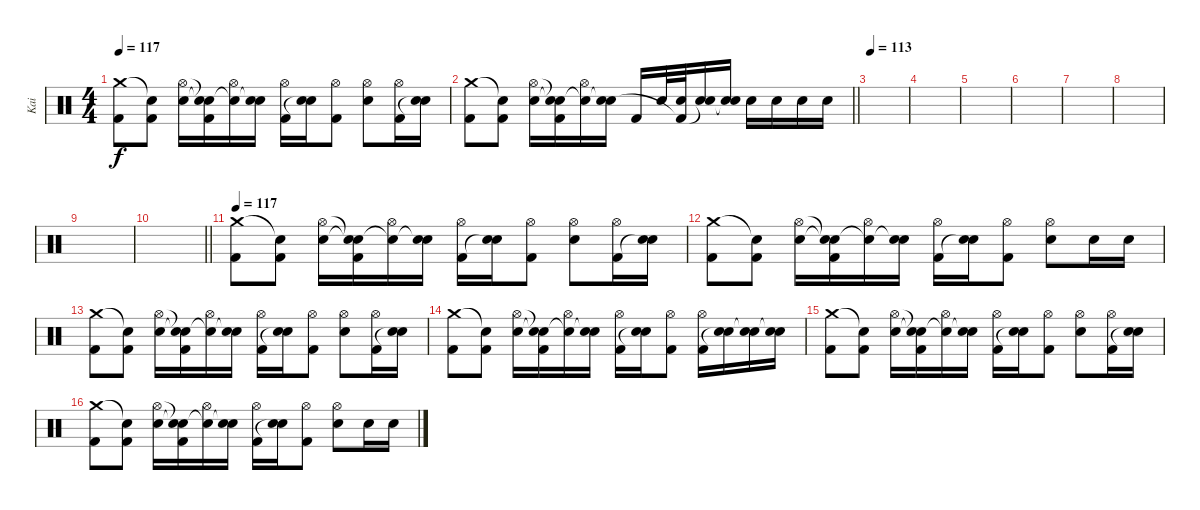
\track ("Kai" "Kai") {instrument percussion}
\staff {score}
\articulation defaults
\ts (4 4)
\tempo 117
\clef neutral
\ks c
("Crash medium (hit)" "Kick (hit) 2").8{dy f} ("Snare (hit)"{t} "Kick (hit) 2").8 ("Hi-Hat (open)" "Snare (hit) 2").16 ("Snare (hit)"{t} "Snare (hit)"{t} "Kick (hit) 2").16 ("Hi-Hat (open)" "Snare (hit)"{t}).16 ("Snare (hit) 2" "Snare (hit)"{t}).16 ("Hi-Hat (open)" "Kick (hit) 2").16 ("Snare (hit) 2" "Snare (hit)"{t}).16 ("Hi-Hat (open)" "Kick (hit) 2").8 ("Hi-Hat (open)" "Snare (hit) 2").8 ("Hi-Hat (open)" "Kick (hit) 2").16 ("Snare (hit) 2" "Snare (hit)"{t}).16 |
\barLineRight lightlight
("Crash medium (hit)" "Kick (hit) 2").8 ("Snare (hit)"{t} "Kick (hit) 2").8 ("Hi-Hat (open)" "Snare (hit) 2").16 ("Snare (hit)"{t} "Snare (hit)"{t} "Kick (hit) 2").16 ("Hi-Hat (open)" "Snare (hit)"{t}).16 ("Snare (hit) 2" "Snare (hit)"{t}).16 "Kick (hit) 2".16 "Snare (hit) 2".32 ("Snare (hit) 2" "Kick (hit) 2"{t}).32 ("Snare (hit) 2" "Snare (hit)"{t}).16 ("Snare (hit) 2" "Snare (hit)"{t}).16 "Snare (hit) 2".16 "Snare (hit) 2".16 "Snare (hit) 2".16 "Snare (hit) 2".16 |
\tempo 113
|
|
|
|
|
|
|
\barLineRight lightlight
|
\tempo 117
("Crash medium (hit)" "Kick (hit) 2").8 ("Snare (hit)"{t} "Kick (hit) 2").8 ("Hi-Hat (open)" "Snare (hit) 2").16 ("Snare (hit)"{t} "Snare (hit)"{t} "Kick (hit) 2").16 ("Hi-Hat (open)" "Snare (hit)"{t}).16 ("Snare (hit) 2" "Snare (hit)"{t}).16 ("Hi-Hat (open)" "Kick (hit) 2").16 ("Snare (hit) 2" "Snare (hit)"{t}).16 ("Hi-Hat (open)" "Kick (hit) 2").8 ("Hi-Hat (open)" "Snare (hit) 2").8 ("Hi-Hat (open)" "Kick (hit) 2").16 ("Snare (hit) 2" "Snare (hit)"{t}).16 |
("Crash medium (hit)" "Kick (hit) 2").8 ("Snare (hit)"{t} "Kick (hit) 2").8 ("Hi-Hat (open)" "Snare (hit) 2").16 ("Snare (hit)"{t} "Snare (hit)"{t} "Kick (hit) 2").16 ("Hi-Hat (open)" "Snare (hit)"{t}).16 ("Snare (hit) 2" "Snare (hit)"{t}).16 ("Hi-Hat (open)" "Kick (hit) 2").16 ("Snare (hit) 2" "Snare (hit)"{t}).16 ("Hi-Hat (open)" "Kick (hit) 2").8 ("Hi-Hat (open)" "Snare (hit) 2").8 "Snare (hit) 2".16 "Snare (hit) 2".16 |
("Crash medium (hit)" "Kick (hit) 2").8 ("Snare (hit)"{t} "Kick (hit) 2").8 ("Hi-Hat (open)" "Snare (hit) 2").16 ("Snare (hit)"{t} "Snare (hit)"{t} "Kick (hit) 2").16 ("Hi-Hat (open)" "Snare (hit)"{t}).16 ("Snare (hit) 2" "Snare (hit)"{t}).16 ("Hi-Hat (open)" "Kick (hit) 2").16 ("Snare (hit) 2" "Snare (hit)"{t}).16 ("Hi-Hat (open)" "Kick (hit) 2").8 ("Hi-Hat (open)" "Snare (hit) 2").8 ("Hi-Hat (open)" "Kick (hit) 2").16 ("Snare (hit) 2" "Snare (hit)"{t}).16 |
("Crash medium (hit)" "Kick (hit) 2").8 ("Snare (hit)"{t} "Kick (hit) 2").8 ("Hi-Hat (open)" "Snare (hit) 2").16 ("Snare (hit)"{t} "Snare (hit)"{t} "Kick (hit) 2").16 ("Hi-Hat (open)" "Snare (hit)"{t}).16 ("Snare (hit) 2" "Snare (hit)"{t}).16 ("Hi-Hat (open)" "Kick (hit) 2").16 ("Snare (hit) 2" "Snare (hit)"{t}).16 ("Hi-Hat (open)" "Kick (hit) 2").8 ("Hi-Hat (open)" "Kick (hit) 2").16 ("Snare (hit) 2" "Snare (hit)"{t}).16 ("Snare (hit) 2" "Snare (hit)"{t}).16 ("Snare (hit) 2" "Snare (hit)"{t}).16 |
("Crash medium (hit)" "Kick (hit) 2").8 ("Snare (hit)"{t} "Kick (hit) 2").8 ("Hi-Hat (open)" "Snare (hit) 2").16 ("Snare (hit)"{t} "Snare (hit)"{t} "Kick (hit) 2").16 ("Hi-Hat (open)" "Snare (hit)"{t}).16 ("Snare (hit) 2" "Snare (hit)"{t}).16 ("Hi-Hat (open)" "Kick (hit) 2").16 ("Snare (hit) 2" "Snare (hit)"{t}).16 ("Hi-Hat (open)" "Kick (hit) 2").8 ("Hi-Hat (open)" "Snare (hit) 2").8 ("Hi-Hat (open)" "Kick (hit) 2").16 ("Snare (hit) 2" "Snare (hit)"{t}).16 |
("Crash medium (hit)" "Kick (hit) 2").8 ("Snare (hit)"{t} "Kick (hit) 2").8 ("Hi-Hat (open)" "Snare (hit) 2").16 ("Snare (hit)"{t} "Snare (hit)"{t} "Kick (hit) 2").16 ("Hi-Hat (open)" "Snare (hit)"{t}).16 ("Snare (hit) 2" "Snare (hit)"{t}).16 ("Hi-Hat (open)" "Kick (hit) 2").16 ("Snare (hit) 2" "Snare (hit)"{t}).16 ("Hi-Hat (open)" "Kick (hit) 2").8 ("Hi-Hat (open)" "Snare (hit) 2").8 "Snare (hit) 2".16 "Snare (hit) 2".16
